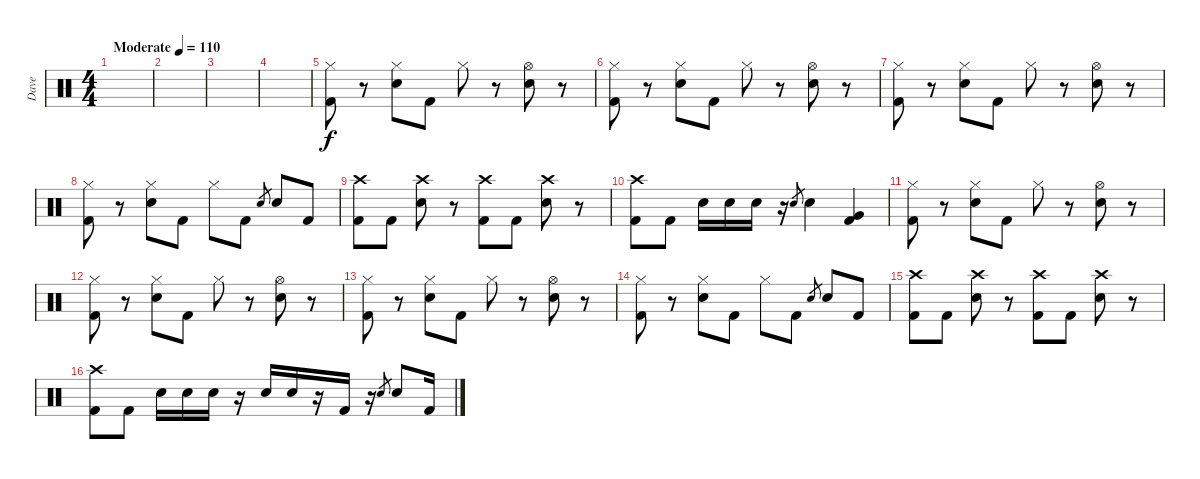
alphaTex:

\track ("Dave" "Dave") {instrument percussion}
\staff {score}
\articulation defaults
\ts (4 4)
\tempo (110 "Moderate")
\clef neutral
\ks c
|
|
|
|
("Hi-Hat (closed)" "Kick (hit) 2").8 r.8 ("Hi-Hat (closed)" "Snare (hit) 2").8 "Kick (hit) 2".8 "Hi-Hat (closed)".8 r.8 ("Hi-Hat (open)" "Snare (hit) 2").8 r.8 |
("Hi-Hat (closed)" "Kick (hit) 2").8 r.8 ("Hi-Hat (closed)" "Snare (hit) 2").8 "Kick (hit) 2".8 "Hi-Hat (closed)".8 r.8 ("Hi-Hat (open)" "Snare (hit) 2").8 r.8 |
("Hi-Hat (closed)" "Kick (hit) 2").8 r.8 ("Hi-Hat (closed)" "Snare (hit) 2").8 "Kick (hit) 2".8 "Hi-Hat (closed)".8 r.8 ("Hi-Hat (open)" "Snare (hit) 2").8 r.8 |
("Hi-Hat (closed)" "Kick (hit) 2").8 r.8 ("Hi-Hat (closed)" "Snare (hit) 2").8 "Kick (hit) 2".8 "Hi-Hat (closed)".8 "Kick (hit) 2".8 "Snare (hit) 2".8{gr} "Snare (hit) 2".8 "Kick (hit) 2".8 |
("Crash high (hit)" "Kick (hit) 2").8 "Kick (hit) 2".8 ("Crash high (hit)" "Snare (hit) 2").8 r.8 ("Crash high (hit)" "Kick (hit) 2").8 "Kick (hit) 2".8 ("Crash high (hit)" "Snare (hit) 2").8 r.8 |
("Crash high (hit)" "Kick (hit) 2").8 "Kick (hit) 2".8 "Snare (hit) 2".16 "Snare (hit) 2".16 "Snare (hit) 2".16 r.16 "Snare (hit) 2".8{gr} "Snare (hit) 2".4 ("Very Low Tom (hit)" "Kick (hit) 2").4 |
("Hi-Hat (closed)" "Kick (hit) 2").8 r.8 ("Hi-Hat (closed)" "Snare (hit) 2").8 "Kick (hit) 2".8 "Hi-Hat (closed)".8 r.8 ("Hi-Hat (open)" "Snare (hit) 2").8 r.8 |
("Hi-Hat (closed)" "Kick (hit) 2").8 r.8 ("Hi-Hat (closed)" "Snare (hit) 2").8 "Kick (hit) 2".8 "Hi-Hat (closed)".8 r.8 ("Hi-Hat (open)" "Snare (hit) 2").8 r.8 |
("Hi-Hat (closed)" "Kick (hit) 2").8 r.8 ("Hi-Hat (closed)" "Snare (hit) 2").8 "Kick (hit) 2".8 "Hi-Hat (closed)".8 r.8 ("Hi-Hat (open)" "Snare (hit) 2").8 r.8 |
("Hi-Hat (closed)" "Kick (hit) 2").8 r.8 ("Hi-Hat (closed)" "Snare (hit) 2").8 "Kick (hit) 2".8 "Hi-Hat (closed)".8 "Kick (hit) 2".8 "Snare (hit) 2".8{gr} "Snare (hit) 2".8 "Kick (hit) 2".8 |
("Crash high (hit)" "Kick (hit) 2").8 "Kick (hit) 2".8 ("Crash high (hit)" "Snare (hit) 2").8 r.8 ("Crash high (hit)" "Kick (hit) 2").8 "Kick (hit) 2".8 ("Crash high (hit)" "Snare (hit) 2").8 r.8 |
("Crash high (hit)" "Kick (hit) 2").8 "Kick (hit) 2".8 "Snare (hit) 2".16 "Snare (hit) 2".16 "Snare (hit) 2".16 r.16 "Snare (hit) 2".16 "Snare (hit) 2".16 r.16 "Kick (hit) 2".16 r.16 "Snare (hit) 2".8{gr} "Snare (hit) 2".8 "Kick (hit) 2".16
